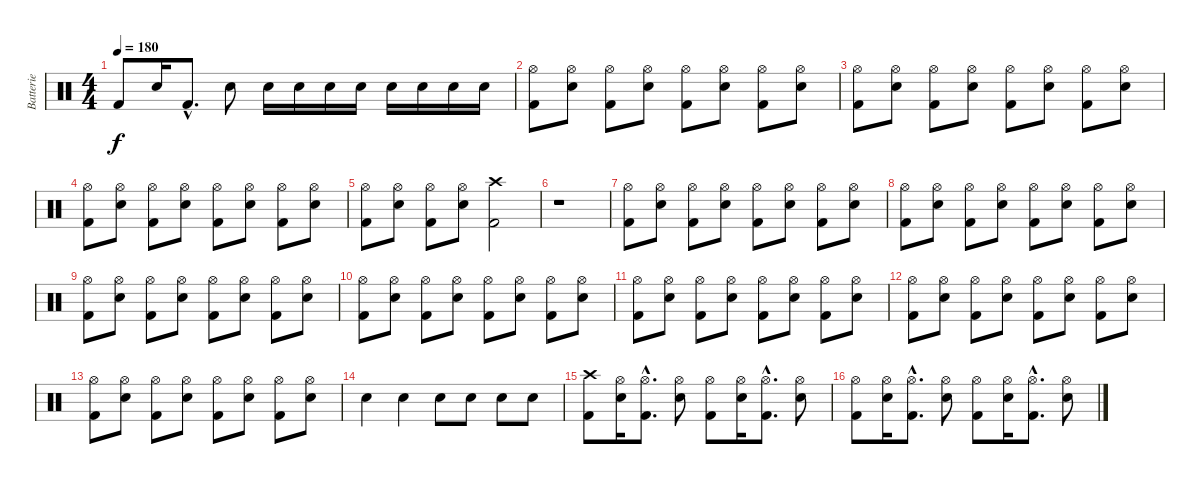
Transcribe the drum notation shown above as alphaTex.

\track ("Batterie" "Batterie") {instrument percussion}
\staff {score}
\articulation defaults
\ts (4 4)
\tempo 180
\clef neutral
\ks c "Kick (hit) 2".8{dy f} "Electric Snare (hit)".16 "Kick (hit) 2"{hac}.8{d} "Electric Snare (hit)".8 "Electric Snare (hit)".16 "Electric Snare (hit)".16 "Electric Snare (hit)".16 "Electric Snare (hit)".16 "Electric Snare (hit)".16 "Electric Snare (hit)".16 "Electric Snare (hit)".16 "Electric Snare (hit)".16
|
("Hi-Hat (open)" "Kick (hit) 2").8 ("Hi-Hat (open)" "Electric Snare (hit)").8 ("Hi-Hat (open)" "Kick (hit) 2").8 ("Hi-Hat (open)" "Electric Snare (hit)").8 ("Hi-Hat (open)" "Kick (hit) 2").8 ("Hi-Hat (open)" "Electric Snare (hit)").8 ("Hi-Hat (open)" "Kick (hit) 2").8 ("Hi-Hat (open)" "Electric Snare (hit)").8 |
("Hi-Hat (open)" "Kick (hit) 2").8 ("Hi-Hat (open)" "Electric Snare (hit)").8 ("Hi-Hat (open)" "Kick (hit) 2").8 ("Hi-Hat (open)" "Electric Snare (hit)").8 ("Hi-Hat (open)" "Kick (hit) 2").8 ("Hi-Hat (open)" "Electric Snare (hit)").8 ("Hi-Hat (open)" "Kick (hit) 2").8 ("Hi-Hat (open)" "Electric Snare (hit)").8 |
("Hi-Hat (open)" "Kick (hit) 2").8 ("Hi-Hat (open)" "Electric Snare (hit)").8 ("Hi-Hat (open)" "Kick (hit) 2").8 ("Hi-Hat (open)" "Electric Snare (hit)").8 ("Hi-Hat (open)" "Kick (hit) 2").8 ("Hi-Hat (open)" "Electric Snare (hit)").8 ("Hi-Hat (open)" "Kick (hit) 2").8 ("Hi-Hat (open)" "Electric Snare (hit)").8 |
("Hi-Hat (open)" "Kick (hit) 2").8 ("Hi-Hat (open)" "Electric Snare (hit)").8 ("Hi-Hat (open)" "Kick (hit) 2").8 ("Hi-Hat (open)" "Electric Snare (hit)").8 ("Crash high (hit)" "Kick (hit) 2").2 |
r.1 |
("Hi-Hat (open)" "Kick (hit) 2").8 ("Hi-Hat (open)" "Electric Snare (hit)").8 ("Hi-Hat (open)" "Kick (hit) 2").8 ("Hi-Hat (open)" "Electric Snare (hit)").8 ("Hi-Hat (open)" "Kick (hit) 2").8 ("Hi-Hat (open)" "Electric Snare (hit)").8 ("Hi-Hat (open)" "Kick (hit) 2").8 ("Hi-Hat (open)" "Electric Snare (hit)").8 |
("Hi-Hat (open)" "Kick (hit) 2").8 ("Hi-Hat (open)" "Electric Snare (hit)").8 ("Hi-Hat (open)" "Kick (hit) 2").8 ("Hi-Hat (open)" "Electric Snare (hit)").8 ("Hi-Hat (open)" "Kick (hit) 2").8 ("Hi-Hat (open)" "Electric Snare (hit)").8 ("Hi-Hat (open)" "Kick (hit) 2").8 ("Hi-Hat (open)" "Electric Snare (hit)").8 |
("Hi-Hat (open)" "Kick (hit) 2").8 ("Hi-Hat (open)" "Electric Snare (hit)").8 ("Hi-Hat (open)" "Kick (hit) 2").8 ("Hi-Hat (open)" "Electric Snare (hit)").8 ("Hi-Hat (open)" "Kick (hit) 2").8 ("Hi-Hat (open)" "Electric Snare (hit)").8 ("Hi-Hat (open)" "Kick (hit) 2").8 ("Hi-Hat (open)" "Electric Snare (hit)").8 |
("Hi-Hat (open)" "Kick (hit) 2").8 ("Hi-Hat (open)" "Electric Snare (hit)").8 ("Hi-Hat (open)" "Kick (hit) 2").8 ("Hi-Hat (open)" "Electric Snare (hit)").8 ("Hi-Hat (open)" "Kick (hit) 2").8 ("Hi-Hat (open)" "Electric Snare (hit)").8 ("Hi-Hat (open)" "Kick (hit) 2").8 ("Hi-Hat (open)" "Electric Snare (hit)").8 |
("Hi-Hat (open)" "Kick (hit) 2").8 ("Hi-Hat (open)" "Electric Snare (hit)").8 ("Hi-Hat (open)" "Kick (hit) 2").8 ("Hi-Hat (open)" "Electric Snare (hit)").8 ("Hi-Hat (open)" "Kick (hit) 2").8 ("Hi-Hat (open)" "Electric Snare (hit)").8 ("Hi-Hat (open)" "Kick (hit) 2").8 ("Hi-Hat (open)" "Electric Snare (hit)").8 |
("Hi-Hat (open)" "Kick (hit) 2").8 ("Hi-Hat (open)" "Electric Snare (hit)").8 ("Hi-Hat (open)" "Kick (hit) 2").8 ("Hi-Hat (open)" "Electric Snare (hit)").8 ("Hi-Hat (open)" "Kick (hit) 2").8 ("Hi-Hat (open)" "Electric Snare (hit)").8 ("Hi-Hat (open)" "Kick (hit) 2").8 ("Hi-Hat (open)" "Electric Snare (hit)").8 |
("Hi-Hat (open)" "Kick (hit) 2").8 ("Hi-Hat (open)" "Electric Snare (hit)").8 ("Hi-Hat (open)" "Kick (hit) 2").8 ("Hi-Hat (open)" "Electric Snare (hit)").8 ("Hi-Hat (open)" "Kick (hit) 2").8 ("Hi-Hat (open)" "Electric Snare (hit)").8 ("Hi-Hat (open)" "Kick (hit) 2").8 ("Hi-Hat (open)" "Electric Snare (hit)").8 |
"Electric Snare (hit)".4 "Electric Snare (hit)".4 "Electric Snare (hit)".8 "Electric Snare (hit)".8 "Electric Snare (hit)".8 "Electric Snare (hit)".8 |
("Crash high (hit)" "Kick (hit) 2").8 ("Hi-Hat (open)" "Electric Snare (hit)").16 ("Hi-Hat (open)"{hac} "Kick (hit) 2"{hac}).8{d} ("Hi-Hat (open)" "Electric Snare (hit)").8 ("Hi-Hat (open)" "Kick (hit) 2").8 ("Hi-Hat (open)" "Electric Snare (hit)").16 ("Hi-Hat (open)"{hac} "Kick (hit) 2"{hac}).8{d} ("Hi-Hat (open)" "Electric Snare (hit)").8 |
("Hi-Hat (open)" "Kick (hit) 2").8 ("Hi-Hat (open)" "Electric Snare (hit)").16 ("Hi-Hat (open)"{hac} "Kick (hit) 2"{hac}).8{d} ("Hi-Hat (open)" "Electric Snare (hit)").8 ("Hi-Hat (open)" "Kick (hit) 2").8 ("Hi-Hat (open)" "Electric Snare (hit)").16 ("Hi-Hat (open)"{hac} "Kick (hit) 2"{hac}).8{d} ("Hi-Hat (open)" "Electric Snare (hit)").8
